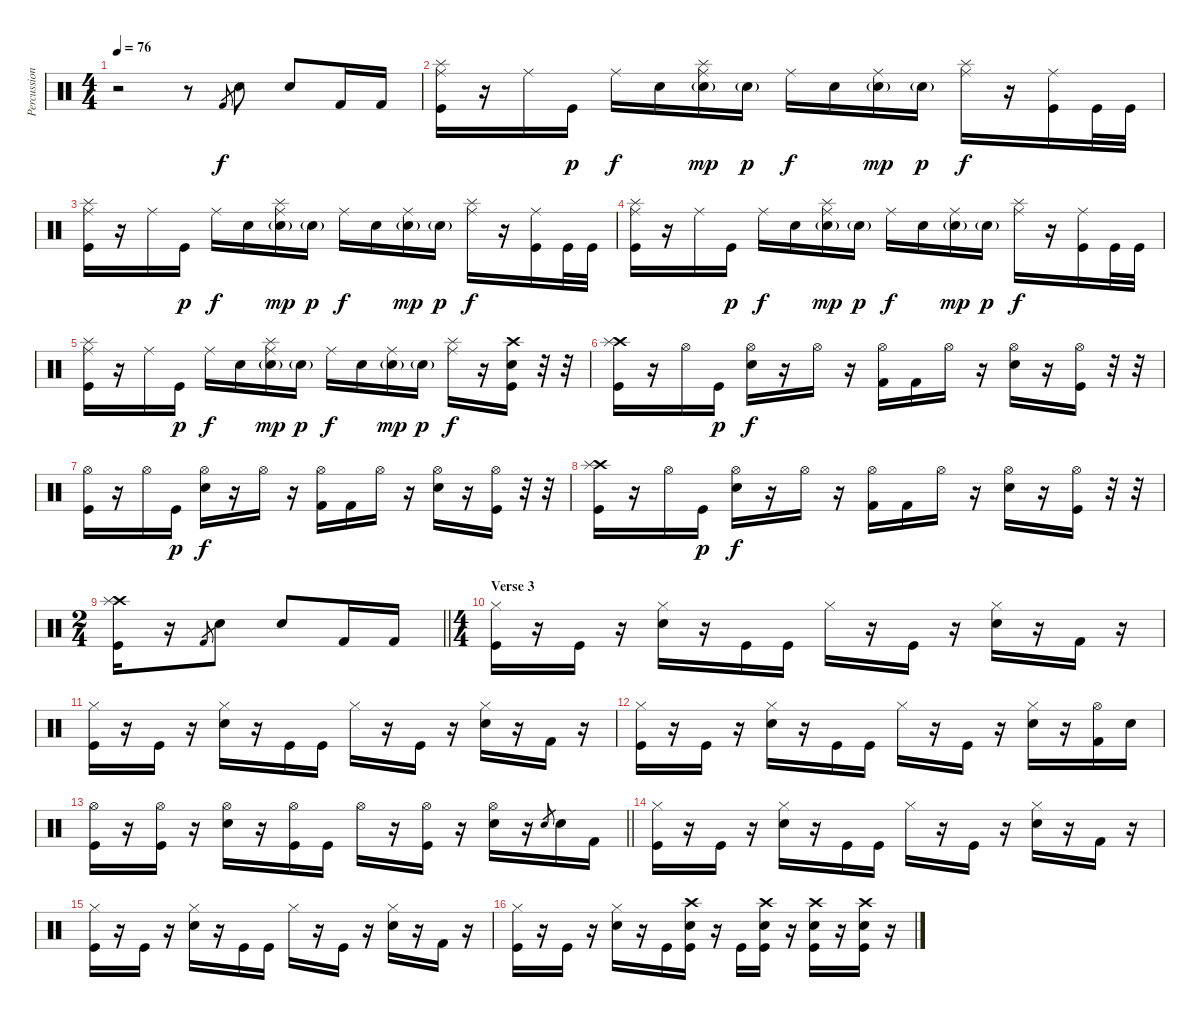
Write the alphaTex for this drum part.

\track ("Percussion" "Percussion") {instrument percussion}
\staff {score}
\articulation defaults
\ts (4 4)
\tempo 76
\clef neutral
\ks c
r.2{dy f} r.8 "Kick (hit) 2".8{gr} "Electric Snare (hit)".8 "Electric Snare (hit)".8 "Kick (hit) 2".16 "Kick (hit) 2".16 |
("Ride (middle)" "Splash (hit)" "Kick (hit)").16 r.16 "Ride (middle)".16 "Kick (hit)".16{dy p} "Ride (middle)".16{dy f} "Electric Snare (hit)".16 ("Ride (middle)" "Splash (hit)" "Electric Snare (hit)"{g}).16{dy mp} "Electric Snare (hit)"{g}.16{dy p} "Ride (middle)".16{dy f} "Electric Snare (hit)".16 ("Ride (middle)" "Electric Snare (hit)"{g}).16{dy mp} "Electric Snare (hit)"{g}.16{dy p} ("Ride (middle)" "Splash (hit)").16{dy f} r.16 ("Ride (middle)" "Kick (hit)").16 "Kick (hit)".32 "Kick (hit)".32 |
("Ride (middle)" "Splash (hit)" "Kick (hit)").16 r.16 "Ride (middle)".16 "Kick (hit)".16{dy p} "Ride (middle)".16{dy f} "Electric Snare (hit)".16 ("Ride (middle)" "Splash (hit)" "Electric Snare (hit)"{g}).16{dy mp} "Electric Snare (hit)"{g}.16{dy p} "Ride (middle)".16{dy f} "Electric Snare (hit)".16 ("Ride (middle)" "Electric Snare (hit)"{g}).16{dy mp} "Electric Snare (hit)"{g}.16{dy p} ("Ride (middle)" "Splash (hit)").16{dy f} r.16 ("Ride (middle)" "Kick (hit)").16 "Kick (hit)".32 "Kick (hit)".32 |
("Ride (middle)" "Splash (hit)" "Kick (hit)").16 r.16 "Ride (middle)".16 "Kick (hit)".16{dy p} "Ride (middle)".16{dy f} "Electric Snare (hit)".16 ("Ride (middle)" "Splash (hit)" "Electric Snare (hit)"{g}).16{dy mp} "Electric Snare (hit)"{g}.16{dy p} "Ride (middle)".16{dy f} "Electric Snare (hit)".16 ("Ride (middle)" "Electric Snare (hit)"{g}).16{dy mp} "Electric Snare (hit)"{g}.16{dy p} ("Ride (middle)" "Splash (hit)").16{dy f} r.16 ("Ride (middle)" "Kick (hit)").16 "Kick (hit)".32 "Kick (hit)".32 |
("Ride (middle)" "Splash (hit)" "Kick (hit)").16 r.16 "Ride (middle)".16 "Kick (hit)".16{dy p} "Ride (middle)".16{dy f} "Electric Snare (hit)".16 ("Ride (middle)" "Splash (hit)" "Electric Snare (hit)"{g}).16{dy mp} "Electric Snare (hit)"{g}.16{dy p} "Ride (middle)".16{dy f} "Electric Snare (hit)".16 ("Ride (middle)" "Electric Snare (hit)"{g}).16{dy mp} "Electric Snare (hit)"{g}.16{dy p} ("Ride (middle)" "Splash (hit)").16{dy f} r.16 ("Crash high (hit)" "Electric Snare (hit)" "Kick (hit)").16 r.32 r.32 |
("Crash high (hit)" "Splash (hit)" "Kick (hit)").16 r.16 "Hi-Hat (open)".16 "Kick (hit)".16{dy p} ("Hi-Hat (open)" "Electric Snare (hit)").16{dy f} r.16 "Hi-Hat (open)".16 r.16 ("Hi-Hat (open)" "Kick (hit) 2").16 "Kick (hit) 2".16 "Hi-Hat (open)".16 r.16 ("Hi-Hat (open)" "Electric Snare (hit)").16 r.16 ("Hi-Hat (open)" "Kick (hit)").16 r.32 r.32 |
("Hi-Hat (open)" "Kick (hit)").16 r.16 "Hi-Hat (open)".16 "Kick (hit)".16{dy p} ("Hi-Hat (open)" "Electric Snare (hit)").16{dy f} r.16 "Hi-Hat (open)".16 r.16 ("Hi-Hat (open)" "Kick (hit) 2").16 "Kick (hit) 2".16 "Hi-Hat (open)".16 r.16 ("Hi-Hat (open)" "Electric Snare (hit)").16 r.16 ("Hi-Hat (open)" "Kick (hit)").16 r.32 r.32 |
("Crash high (hit)" "Splash (hit)" "Kick (hit)").16 r.16 "Hi-Hat (open)".16 "Kick (hit)".16{dy p} ("Hi-Hat (open)" "Electric Snare (hit)").16{dy f} r.16 "Hi-Hat (open)".16 r.16 ("Hi-Hat (open)" "Kick (hit) 2").16 "Kick (hit) 2".16 "Hi-Hat (open)".16 r.16 ("Hi-Hat (open)" "Electric Snare (hit)").16 r.16 ("Hi-Hat (open)" "Kick (hit)").16 r.32 r.32 |
\ts (2 4)
\barLineRight lightlight
("Crash high (hit)" "Splash (hit)" "Kick (hit)").16 r.16 "Kick (hit) 2".8{gr} "Electric Snare (hit)".8 "Electric Snare (hit)".8 "Kick (hit) 2".16 "Kick (hit) 2".16 |
\ts (4 4)
\section ("" "Verse 3")
("Hi-Hat (closed)" "Kick (hit)").16 r.16 "Kick (hit)".16 r.16 ("Hi-Hat (closed)" "Electric Snare (hit)").16 r.16 "Kick (hit)".16 "Kick (hit)".16 "Hi-Hat (closed)".16 r.16 "Kick (hit)".16 r.16 ("Hi-Hat (closed)" "Electric Snare (hit)").16 r.16 "Kick (hit) 2".16 r.16 |
("Hi-Hat (closed)" "Kick (hit)").16 r.16 "Kick (hit)".16 r.16 ("Hi-Hat (closed)" "Electric Snare (hit)").16 r.16 "Kick (hit)".16 "Kick (hit)".16 "Hi-Hat (closed)".16 r.16 "Kick (hit)".16 r.16 ("Hi-Hat (closed)" "Electric Snare (hit)").16 r.16 "Kick (hit) 2".16 r.16 |
("Hi-Hat (closed)" "Kick (hit)").16 r.16 "Kick (hit)".16 r.16 ("Hi-Hat (closed)" "Electric Snare (hit)").16 r.16 "Kick (hit)".16 "Kick (hit)".16 "Hi-Hat (closed)".16 r.16 "Kick (hit)".16 r.16 ("Hi-Hat (closed)" "Electric Snare (hit)").16 r.16 ("Hi-Hat (open)" "Kick (hit) 2").16 "Electric Snare (hit)".16 |
\barLineRight lightlight
("Hi-Hat (open)" "Kick (hit)").16 r.16 ("Hi-Hat (open)" "Kick (hit)").16 r.16 ("Hi-Hat (open)" "Electric Snare (hit)").16 r.16 ("Hi-Hat (open)" "Kick (hit)").16 "Kick (hit)".16 "Hi-Hat (open)".16 r.16 ("Hi-Hat (open)" "Kick (hit)").16 r.16 ("Hi-Hat (open)" "Electric Snare (hit)").16 r.16 "Electric Snare (hit)".8{gr} "Electric Snare (hit)".16 "Kick (hit) 2".16 |
("Hi-Hat (closed)" "Kick (hit)").16 r.16 "Kick (hit)".16 r.16 ("Hi-Hat (closed)" "Electric Snare (hit)").16 r.16 "Kick (hit)".16 "Kick (hit)".16 "Hi-Hat (closed)".16 r.16 "Kick (hit)".16 r.16 ("Hi-Hat (closed)" "Electric Snare (hit)").16 r.16 "Kick (hit) 2".16 r.16 |
("Hi-Hat (closed)" "Kick (hit)").16 r.16 "Kick (hit)".16 r.16 ("Hi-Hat (closed)" "Electric Snare (hit)").16 r.16 "Kick (hit)".16 "Kick (hit)".16 "Hi-Hat (closed)".16 r.16 "Kick (hit)".16 r.16 ("Hi-Hat (closed)" "Electric Snare (hit)").16 r.16 "Kick (hit) 2".16 r.16 |
("Hi-Hat (closed)" "Kick (hit)").16 r.16 "Kick (hit)".16 r.16 ("Hi-Hat (closed)" "Electric Snare (hit)").16 r.16 "Kick (hit)".16 ("Crash high (hit)" "Electric Snare (hit)" "Kick (hit)").16 r.16 "Kick (hit)".16 ("Crash high (hit)" "Electric Snare (hit)" "Kick (hit)").16 r.16 ("Crash high (hit)" "Electric Snare (hit)" "Kick (hit)").16 r.16 ("Crash high (hit)" "Electric Snare (hit)" "Kick (hit)").16 r.16
